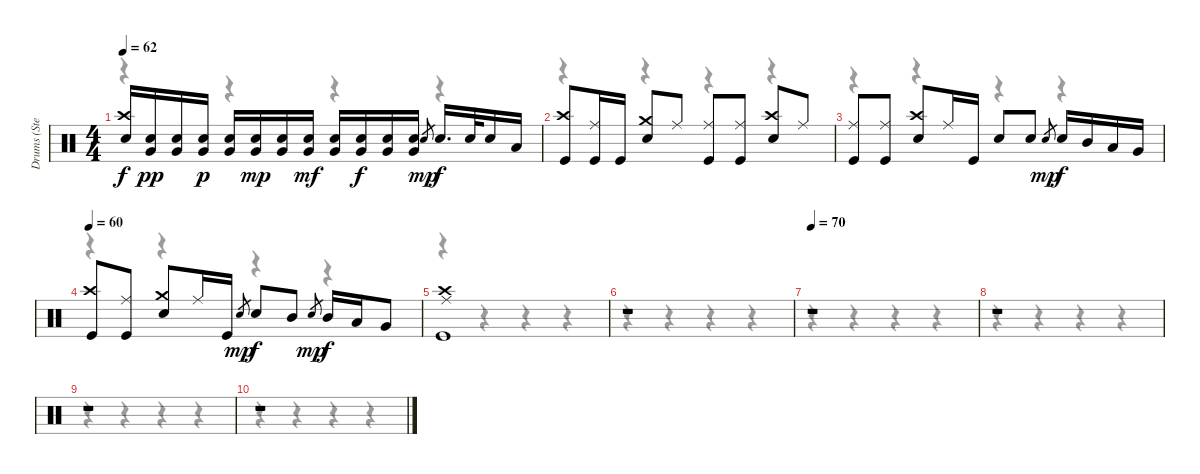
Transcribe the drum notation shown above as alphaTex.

\track ("Drums (Steven)" "Drums (Ste") {instrument percussion}
\staff {score}
\articulation defaults
\voice
\ts (4 4)
\tempo 62
\clef neutral
\ks c
("Crash high (hit)" "Snare (hit) 2").16{dy f} ("Snare (hit) 2" "Very Low Tom (hit)").16{dy pp} ("Snare (hit) 2" "Very Low Tom (hit)").16 ("Snare (hit) 2" "Very Low Tom (hit)").16{dy p} ("Snare (hit) 2" "Very Low Tom (hit)").16 ("Snare (hit) 2" "Very Low Tom (hit)").16{dy mp} ("Snare (hit) 2" "Very Low Tom (hit)").16 ("Snare (hit) 2" "Very Low Tom (hit)").16{dy mf} ("Snare (hit) 2" "Very Low Tom (hit)").16 ("Snare (hit) 2" "Very Low Tom (hit)").16{dy f} ("Snare (hit) 2" "Very Low Tom (hit)").16 ("Snare (hit) 2" "Very Low Tom (hit)").16 "Snare (hit)".8{gr dy mp} "Snare (hit) 2".16{d dy f} "Snare (hit) 2".32 "Snare (hit) 2".16 "Low Tom (hit)".16 |
("Crash high (hit)" "Kick (hit)").8 ("Ride (middle)" "Kick (hit)").16 "Kick (hit)".16 ("Crash medium (hit)" "Snare (hit) 2").8 "Ride (middle)".8 ("Ride (middle)" "Kick (hit)").8 ("Ride (middle)" "Kick (hit)").8 ("Crash high (hit)" "Snare (hit) 2").8 "Ride (middle)".8 |
("Ride (middle)" "Kick (hit)").8 ("Ride (middle)" "Kick (hit)").8 ("Crash high (hit)" "Snare (hit) 2").8 "Ride (middle)".16 "Kick (hit)".16 "Snare (hit) 2".8 "Snare (hit) 2".8 "Snare (hit)".8{gr dy mp} "Snare (hit) 2".16{dy f} "Mid Tom (hit)".16 "Low Tom (hit)".16 "Very Low Tom (hit)".16 |
\tempo 60
("Crash high (hit)" "Kick (hit)").8 ("Ride (middle)" "Kick (hit)").8 ("Crash medium (hit)" "Snare (hit) 2").8 "Ride (middle)".16 "Kick (hit)".16 "Snare (hit)".8{gr dy mp} "Snare (hit) 2".8{dy f} "Mid Tom (hit)".8 "Snare (hit)".8{gr dy mp} "Mid Tom (hit)".16{dy f} "Low Tom (hit)".16 "Very Low Tom (hit)".8 |
("Crash high (hit)" "Ride (middle)" "Kick (hit)").1 |
r.1 |
\tempo 70
r.1 |
r.1 |
r.1 |
r.1
\voice
\clef neutral
\ottava regular
\simile none
\ks c
r.4{dy f} r.4 r.4 r.4 |
r.4 r.4 r.4 r.4 |
r.4 r.4 r.4 r.4 |
r.4 r.4 r.4 r.4 |
r.4 r.4 r.4 r.4 |
r.4 r.4 r.4 r.4 |
r.4 r.4 r.4 r.4 |
r.4 r.4 r.4 r.4 |
r.4 r.4 r.4 r.4 |
r.4 r.4 r.4 r.4
